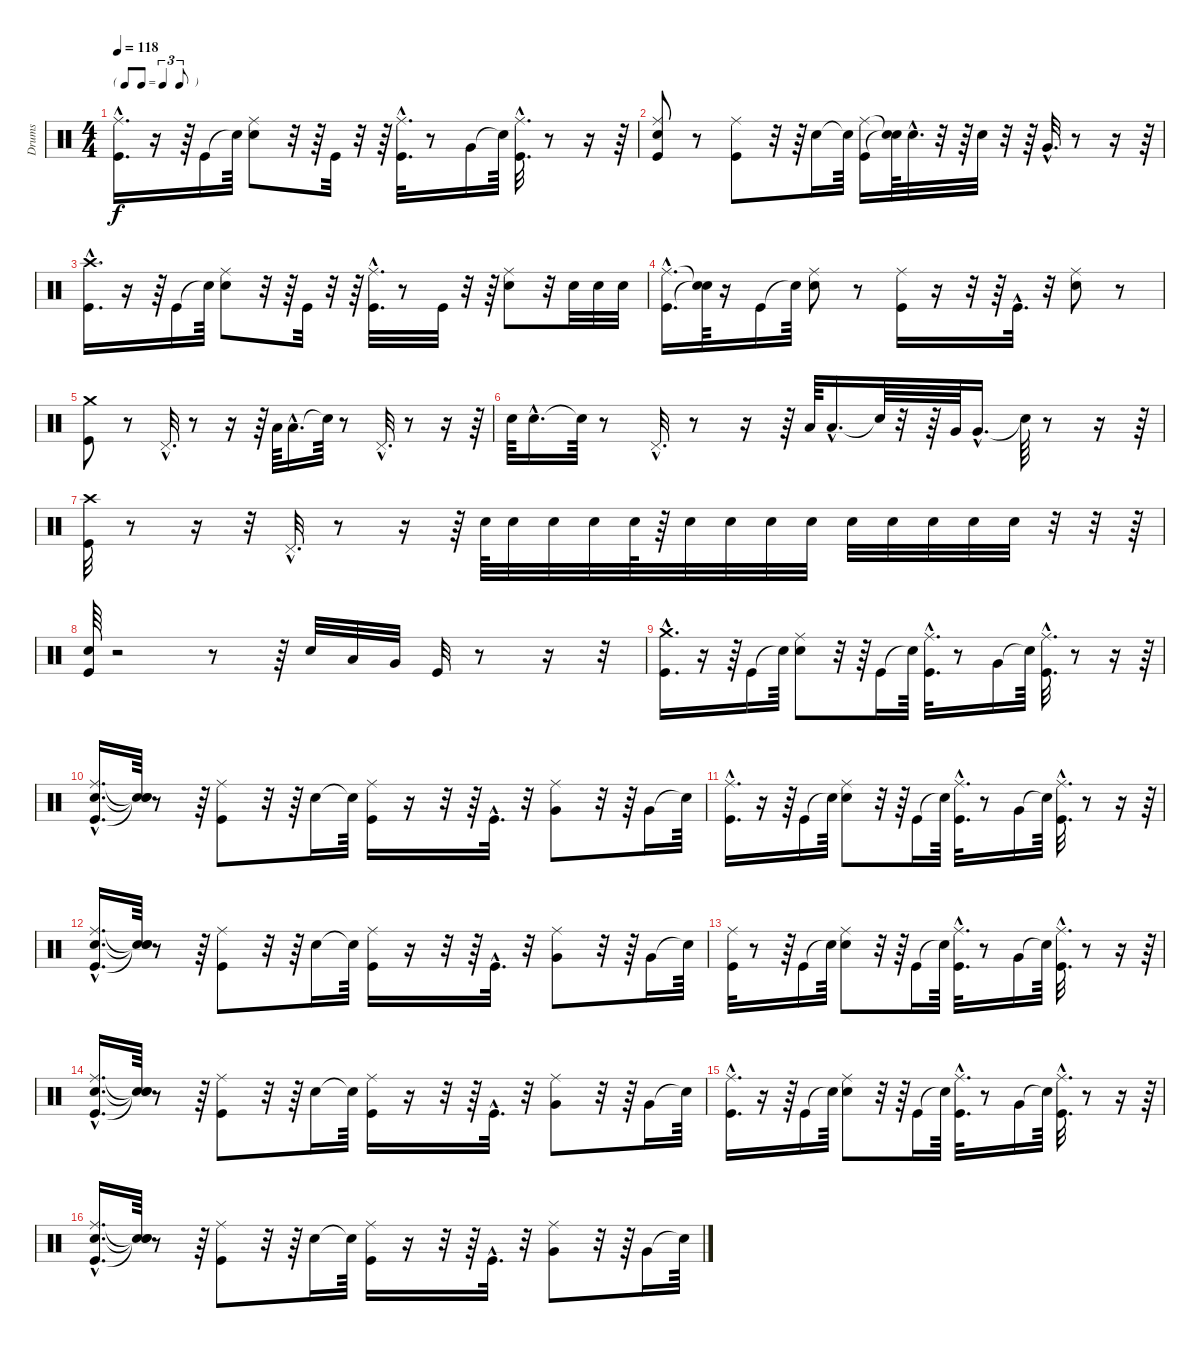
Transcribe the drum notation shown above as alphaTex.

\track ("Drums" "Drums") {instrument percussion}
\staff {score}
\articulation defaults
\ts (4 4)
\tf triplet8th
\tempo 118
\clef neutral
\ks c
("Kick (hit)"{hac} "Ride (middle)"{hac}).16{d dy f} r.16 r.64 "Kick (hit)".16 "Snare (hit)"{t}.64 ("Snare (hit) 2" "Ride (middle)").8 r.32 r.64 "Kick (hit)".32 r.32 r.64 ("Ride (middle)"{hac} "Kick (hit)"{hac}).32{d} r.8 "Very Low Tom (hit)".16 "Snare (hit)"{t}.64 ("Kick (hit)"{hac} "Ride (middle)"{hac}).32{d} r.8 r.16 r.64 |
("Snare (hit) 2" "Ride (middle)" "Kick (hit)").8 r.8 ("Kick (hit)" "Ride (middle)").8 r.32 r.64 "Snare (hit) 2".16 "Snare (hit)"{t}.64 ("Ride (middle)" "Kick (hit)").16 ("Snare (hit)"{t} "Snare (hit)"{t}).64 "Snare (hit) 2"{hac}.32{d} r.32 r.64 "Snare (hit) 2".32 r.32 r.64 "Very Low Tom (hit)"{hac}.32{d} r.8 r.16 r.64 |
("Kick (hit)"{hac} "Crash high (hit)"{hac}).16{d} r.16 r.64 "Kick (hit)".16 "Snare (hit)"{t}.64 ("Snare (hit) 2" "Ride (middle)").8 r.32 r.64 "Kick (hit)".32 r.32 r.64 ("Ride (middle)"{hac} "Kick (hit)"{hac}).32{d} r.8 "Kick (hit)".32 r.32 r.64 ("Ride (middle)" "Snare (hit) 2").8 r.32 "Snare (hit) 2".32 "Snare (hit) 2".32 "Snare (hit) 2".32 |
("Kick (hit)"{hac} "Ride (middle)"{hac}).16{d} ("Snare (hit)"{t} "Snare (hit)"{t}).64 r.16 "Kick (hit)".16 "Snare (hit)"{t}.64 ("Ride (middle)" "Snare (hit) 2").8 r.8 ("Kick (hit)" "Ride (middle)").16 r.16 r.32 r.64 "Kick (hit)"{hac}.32{d} r.32 ("Ride (middle)" "Snare (hit) 2").8 r.8 |
("Kick (hit)" "Crash medium (hit)").8 r.8 "Pedal Hi-Hat (hit)"{hac}.32{d} r.8 r.16 r.64 "Low Tom (hit)".64 "Low Tom (hit)"{hac}.16{d} "Snare (hit)"{t}.64 r.8 "Pedal Hi-Hat (hit)"{hac}.32{d} r.8 r.16 r.64 |
"Snare (hit) 2".64 "Snare (hit) 2"{hac}.16{d} "Snare (hit)"{t}.64 r.8 "Pedal Hi-Hat (hit)"{hac}.32{d} r.8 r.16 r.64 "Low Tom (hit)".64 "Low Tom (hit)"{hac}.16{d} "Snare (hit)"{t}.64 r.32 r.64 "Very Low Tom (hit)".64 "Very Low Tom (hit)"{hac}.16{d} "Snare (hit)"{t}.64 r.8 r.16 r.64 |
("Kick (hit)" "Crash high (hit)").32 r.8 r.16 r.32 "Pedal Hi-Hat (hit)"{hac}.32{d} r.8 r.16 r.64 "Snare (hit) 2".64 "Snare (hit) 2".32 "Snare (hit) 2".32 "Snare (hit) 2".32 "Snare (hit) 2".64 r.64 "Snare (hit) 2".32 "Snare (hit) 2".32 "Snare (hit) 2".32 "Snare (hit) 2".32 "Snare (hit) 2".32 "Snare (hit) 2".32 "Snare (hit) 2".32 "Snare (hit) 2".32 "Snare (hit) 2".32 r.32 r.32 r.64 |
("Snare (hit) 2" "Kick (hit)").64 r.2 r.8 r.64 "Snare (hit) 2".32 "Low Tom (hit)".32 "Very Low Tom (hit)".32 "Kick (hit)".32 r.8 r.16 r.32 |
("Crash medium (hit)"{hac} "Kick (hit)"{hac}).16{d} r.16 r.64 "Kick (hit)".16 "Snare (hit)"{t}.64 ("Snare (hit) 2" "Ride (middle)").8 r.32 r.64 "Kick (hit)".16 "Snare (hit)"{t}.64 ("Ride (middle)"{hac} "Kick (hit)"{hac}).32{d} r.8 "Very Low Tom (hit)".16 "Snare (hit)"{t}.64 ("Ride (middle)"{hac} "Kick (hit)"{hac}).32{d} r.8 r.16 r.64 |
("Kick (hit)"{hac} "Ride (middle)"{hac} "Snare (hit) 2"{hac}).16{d} ("Snare (hit)"{t} "Snare (hit)"{t} "Snare (hit)"{t}).64 r.8 r.64 ("Kick (hit)" "Ride (middle)").8 r.32 r.64 "Snare (hit) 2".16 "Snare (hit)"{t}.64 ("Kick (hit)" "Ride (middle)").16 r.16 r.32 r.64 "Kick (hit)"{hac}.32{d} r.32 ("Ride (middle)" "Very Low Tom (hit)").8 r.32 r.64 "Very Low Tom (hit)".16 "Snare (hit)"{t}.64 |
("Kick (hit)"{hac} "Ride (middle)"{hac}).16{d} r.16 r.64 "Kick (hit)".16 "Snare (hit)"{t}.64 ("Snare (hit) 2" "Ride (middle)").8 r.32 r.64 "Kick (hit)".16 "Snare (hit)"{t}.64 ("Ride (middle)"{hac} "Kick (hit)"{hac}).32{d} r.8 "Very Low Tom (hit)".16 "Snare (hit)"{t}.64 ("Kick (hit)"{hac} "Ride (middle)"{hac}).32{d} r.8 r.16 r.64 |
("Ride (middle)"{hac} "Kick (hit)"{hac} "Snare (hit) 2"{hac}).16{d} ("Snare (hit)"{t} "Snare (hit)"{t} "Snare (hit)"{t}).64 r.8 r.64 ("Ride (middle)" "Kick (hit)").8 r.32 r.64 "Snare (hit) 2".16 "Snare (hit)"{t}.64 ("Kick (hit)" "Ride (middle)").16 r.16 r.32 r.64 "Kick (hit)"{hac}.32{d} r.32 ("Ride (middle)" "Very Low Tom (hit)").8 r.32 r.64 "Very Low Tom (hit)".16 "Snare (hit)"{t}.64 |
("Ride (middle)" "Kick (hit)").32 r.8 r.64 "Kick (hit)".16 "Snare (hit)"{t}.64 ("Snare (hit) 2" "Ride (middle)").8 r.32 r.64 "Kick (hit)".16 "Snare (hit)"{t}.64 ("Ride (middle)"{hac} "Kick (hit)"{hac}).32{d} r.8 "Very Low Tom (hit)".16 "Snare (hit)"{t}.64 ("Ride (middle)"{hac} "Kick (hit)"{hac}).32{d} r.8 r.16 r.64 |
("Kick (hit)"{hac} "Ride (middle)"{hac} "Snare (hit) 2"{hac}).16{d} ("Snare (hit)"{t} "Snare (hit)"{t} "Snare (hit)"{t}).64 r.8 r.64 ("Kick (hit)" "Ride (middle)").8 r.32 r.64 "Snare (hit) 2".16 "Snare (hit)"{t}.64 ("Kick (hit)" "Ride (middle)").16 r.16 r.32 r.64 "Kick (hit)"{hac}.32{d} r.32 ("Ride (middle)" "Very Low Tom (hit)").8 r.32 r.64 "Very Low Tom (hit)".16 "Snare (hit)"{t}.64 |
("Kick (hit)"{hac} "Ride (middle)"{hac}).16{d} r.16 r.64 "Kick (hit)".16 "Snare (hit)"{t}.64 ("Snare (hit) 2" "Ride (middle)").8 r.32 r.64 "Kick (hit)".16 "Snare (hit)"{t}.64 ("Ride (middle)"{hac} "Kick (hit)"{hac}).32{d} r.8 "Very Low Tom (hit)".16 "Snare (hit)"{t}.64 ("Kick (hit)"{hac} "Ride (middle)"{hac}).32{d} r.8 r.16 r.64 |
("Ride (middle)"{hac} "Kick (hit)"{hac} "Snare (hit) 2"{hac}).16{d} ("Snare (hit)"{t} "Snare (hit)"{t} "Snare (hit)"{t}).64 r.8 r.64 ("Ride (middle)" "Kick (hit)").8 r.32 r.64 "Snare (hit) 2".16 "Snare (hit)"{t}.64 ("Kick (hit)" "Ride (middle)").16 r.16 r.32 r.64 "Kick (hit)"{hac}.32{d} r.32 ("Ride (middle)" "Very Low Tom (hit)").8 r.32 r.64 "Very Low Tom (hit)".16 "Snare (hit)"{t}.64
